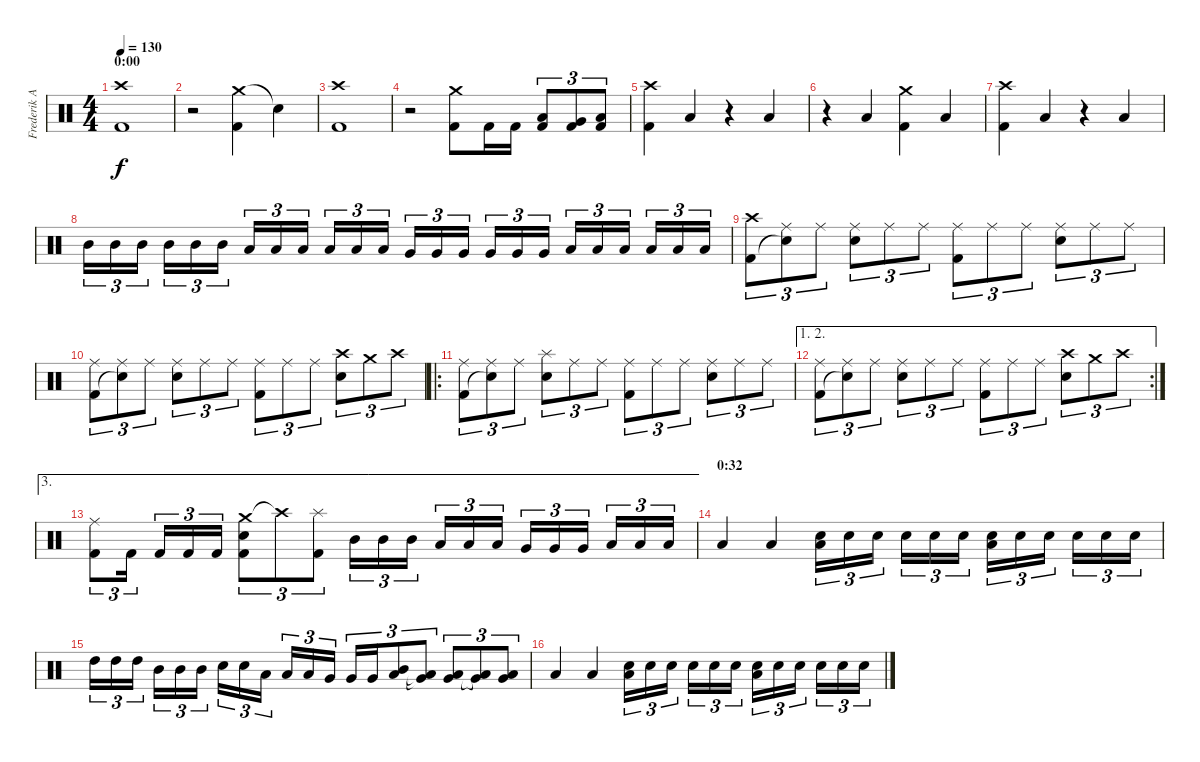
\track ("Frederik Anderson" "Frederik A") {instrument percussion}
\staff {score}
\articulation defaults
\ts (4 4)
\section ("" "0:00")
\tempo 130
\clef neutral
\ks c
("Crash high (hit)" "Kick (hit) 2").1{dy f} |
r.2 ("Crash medium (hit)" "Kick (hit) 2").4 "Snare (hit)"{t}.4 |
("Crash high (hit)" "Kick (hit) 2").1 |
r.2 ("Crash medium (hit)" "Kick (hit) 2").8 "Kick (hit) 2".16 "Kick (hit) 2".16 ("Low Tom (hit)" "Kick (hit) 2").8{tu (3 2)} ("Very Low Tom (hit)" "Kick (hit) 2").8{tu (3 2)} ("Low Floor Tom (hit)" "Kick (hit) 2").8{tu (3 2)} |
("Crash high (hit)" "Kick (hit) 2").4 "Low Floor Tom (hit)".4 r.4 "Low Floor Tom (hit)".4 |
r.4 "Low Floor Tom (hit)".4 ("Crash medium (hit)" "Kick (hit) 2").4 "Low Floor Tom (hit)".4 |
("Crash high (hit)" "Kick (hit) 2").4 "Low Floor Tom (hit)".4 r.4 "Low Floor Tom (hit)".4 |
"Mid Tom (hit)".16{tu (3 2)} "Mid Tom (hit)".16{tu (3 2)} "Mid Tom (hit)".16{tu (3 2)} "Mid Tom (hit)".16{tu (3 2)} "Mid Tom (hit)".16{tu (3 2)} "Mid Tom (hit)".16{tu (3 2)} "Low Tom (hit)".16{tu (3 2)} "Low Tom (hit)".16{tu (3 2)} "Low Tom (hit)".16{tu (3 2)} "Low Tom (hit)".16{tu (3 2)} "Low Tom (hit)".16{tu (3 2)} "Low Tom (hit)".16{tu (3 2)} "Very Low Tom (hit)".16{tu (3 2)} "Very Low Tom (hit)".16{tu (3 2)} "Very Low Tom (hit)".16{tu (3 2)} "Very Low Tom (hit)".16{tu (3 2)} "Very Low Tom (hit)".16{tu (3 2)} "Very Low Tom (hit)".16{tu (3 2)} "Low Floor Tom (hit)".16{tu (3 2)} "Low Floor Tom (hit)".16{tu (3 2)} "Low Floor Tom (hit)".16{tu (3 2)} "Low Floor Tom (hit)".16{tu (3 2)} "Low Floor Tom (hit)".16{tu (3 2)} "Low Floor Tom (hit)".16{tu (3 2)} |
("Crash high (hit)" "Kick (hit) 2").8{tu (3 2)} ("Ride (middle)" "Snare (hit)"{t}).8{tu (3 2)} "Ride (middle)".8{tu (3 2)} ("Ride (middle)" "Electric Snare (hit)").8{tu (3 2)} "Ride (middle)".8{tu (3 2)} "Ride (middle)".8{tu (3 2)} ("Ride (middle)" "Kick (hit) 2").8{tu (3 2)} "Ride (middle)".8{tu (3 2)} "Ride (middle)".8{tu (3 2)} ("Ride (middle)" "Electric Snare (hit)").8{tu (3 2)} "Ride (middle)".8{tu (3 2)} "Ride (middle)".8{tu (3 2)} |
("Ride (middle)" "Kick (hit) 2").8{tu (3 2)} ("Ride (middle)" "Snare (hit)"{t}).8{tu (3 2)} "Ride (middle)".8{tu (3 2)} ("Ride (middle)" "Electric Snare (hit)").8{tu (3 2)} "Ride (middle)".8{tu (3 2)} "Ride (middle)".8{tu (3 2)} ("Ride (middle)" "Kick (hit) 2").8{tu (3 2)} "Ride (middle)".8{tu (3 2)} "Ride (middle)".8{tu (3 2)} ("Crash high (hit)" "Electric Snare (hit)").8{tu (3 2)} "Crash medium (hit)".8{tu (3 2)} "Crash high (hit)".8{tu (3 2)} |
\ro
("Ride (middle)" "Kick (hit) 2").8{tu (3 2)} ("Ride (middle)" "Snare (hit)"{t}).8{tu (3 2)} "Ride (middle)".8{tu (3 2)} ("Splash (hit)" "Electric Snare (hit)").8{tu (3 2)} "Ride (middle)".8{tu (3 2)} "Ride (middle)".8{tu (3 2)} ("Ride (middle)" "Kick (hit) 2").8{tu (3 2)} "Ride (middle)".8{tu (3 2)} "Ride (middle)".8{tu (3 2)} ("Ride (middle)" "Electric Snare (hit)").8{tu (3 2)} "Ride (middle)".8{tu (3 2)} "Ride (middle)".8{tu (3 2)} |
\ae (1 2)
\rc 2
("Ride (middle)" "Kick (hit) 2").8{tu (3 2)} ("Ride (middle)" "Snare (hit)"{t}).8{tu (3 2)} "Ride (middle)".8{tu (3 2)} ("Ride (middle)" "Electric Snare (hit)").8{tu (3 2)} "Ride (middle)".8{tu (3 2)} "Ride (middle)".8{tu (3 2)} ("Ride (middle)" "Kick (hit) 2").8{tu (3 2)} "Ride (middle)".8{tu (3 2)} "Ride (middle)".8{tu (3 2)} ("Crash high (hit)" "Electric Snare (hit)").8{tu (3 2)} "Crash medium (hit)".8{tu (3 2)} "Crash high (hit)".8{tu (3 2)} |
\ae 3
("Ride (middle)" "Kick (hit) 2").8{tu (3 2)} "Kick (hit) 2".16{tu (3 2)} "Kick (hit) 2".16{tu (3 2)} "Kick (hit) 2".16{tu (3 2)} "Kick (hit) 2".16{tu (3 2)} ("Crash medium (hit)" "Electric Snare (hit)" "Kick (hit) 2").8{tu (3 2)} "Crash high (hit)"{t}.8{tu (3 2)} ("Splash (hit)" "Kick (hit) 2").8{tu (3 2)} "Mid Tom (hit)".16{tu (3 2)} "Mid Tom (hit)".16{tu (3 2)} "Mid Tom (hit)".16{tu (3 2)} "Low Tom (hit)".16{tu (3 2)} "Low Tom (hit)".16{tu (3 2)} "Low Tom (hit)".16{tu (3 2)} "Very Low Tom (hit)".16{tu (3 2)} "Very Low Tom (hit)".16{tu (3 2)} "Very Low Tom (hit)".16{tu (3 2)} "Low Floor Tom (hit)".16{tu (3 2)} "Low Floor Tom (hit)".16{tu (3 2)} "Low Floor Tom (hit)".16{tu (3 2)} |
\section ("" "0:32")
"Low Floor Tom (hit)".4 "Low Floor Tom (hit)".4 ("Low Floor Tom (hit)" "Electric Snare (hit)").16{tu (3 2)} "Electric Snare (hit)".16{tu (3 2)} "Electric Snare (hit)".16{tu (3 2)} "Electric Snare (hit)".16{tu (3 2)} "Electric Snare (hit)".16{tu (3 2)} "Electric Snare (hit)".16{tu (3 2)} ("Low Floor Tom (hit)" "Electric Snare (hit)").16{tu (3 2)} "Electric Snare (hit)".16{tu (3 2)} "Electric Snare (hit)".16{tu (3 2)} "Electric Snare (hit)".16{tu (3 2)} "Electric Snare (hit)".16{tu (3 2)} "Electric Snare (hit)".16{tu (3 2)} |
"High Tom (hit)".16{tu (3 2)} "High Tom (hit)".16{tu (3 2)} "High Tom (hit)".16{tu (3 2)} "Mid Tom (hit)".16{tu (3 2)} "Mid Tom (hit)".16{tu (3 2)} "Mid Tom (hit)".16{tu (3 2)} "Electric Snare (hit)".16{tu (3 2)} "Electric Snare (hit)".16{tu (3 2)} "Low Tom (hit)".16{tu (3 2)} "Low Tom (hit)".16{tu (3 2)} "Low Tom (hit)".16{tu (3 2)} "Very Low Tom (hit)".16{tu (3 2)} "Very Low Tom (hit)".16{tu (3 2)} "Very Low Tom (hit)".16{tu (3 2)} ("Mid Tom (hit)" "Low Tom (hit)").8{tu (3 2)} ("Low Tom (hit)"{t} "Very Low Tom (hit)"{t}).8{tu (3 2)} ("Low Tom (hit)" "Very Low Tom (hit)").8{tu (3 2)} ("Very Low Tom (hit)"{t} "Low Floor Tom (hit)"{t}).8{tu (3 2)} ("Very Low Tom (hit)" "Low Floor Tom (hit)").8{tu (3 2)} |
"Low Floor Tom (hit)".4 "Low Floor Tom (hit)".4 ("Low Floor Tom (hit)" "Electric Snare (hit)").16{tu (3 2)} "Electric Snare (hit)".16{tu (3 2)} "Electric Snare (hit)".16{tu (3 2)} "Electric Snare (hit)".16{tu (3 2)} "Electric Snare (hit)".16{tu (3 2)} "Electric Snare (hit)".16{tu (3 2)} ("Low Floor Tom (hit)" "Electric Snare (hit)").16{tu (3 2)} "Electric Snare (hit)".16{tu (3 2)} "Electric Snare (hit)".16{tu (3 2)} "Electric Snare (hit)".16{tu (3 2)} "Electric Snare (hit)".16{tu (3 2)} "Electric Snare (hit)".16{tu (3 2)}
